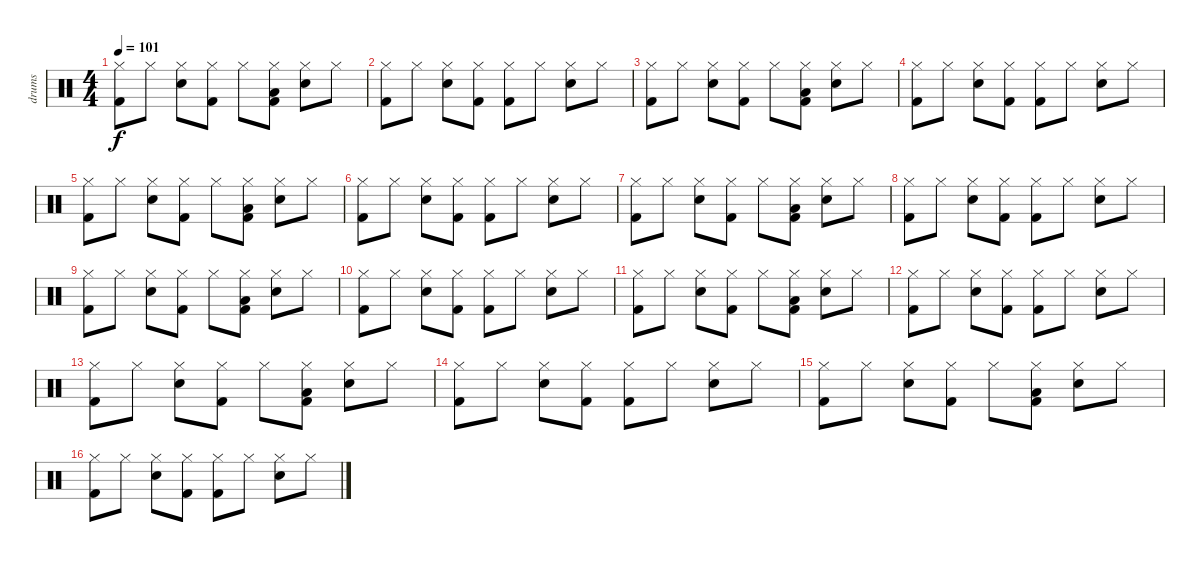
\track ("drums" "drums") {instrument percussion}
\staff {score}
\articulation defaults
\ts (4 4)
\tempo 101
\clef neutral
\ks c
("Hi-Hat (closed)" "Kick (hit) 2").8{dy f} "Hi-Hat (closed)".8 ("Hi-Hat (closed)" "Snare (hit) 2").8 ("Hi-Hat (closed)" "Kick (hit) 2").8 "Hi-Hat (closed)".8 ("Hi-Hat (closed)" "Low Floor Tom (hit)" "Kick (hit) 2").8 ("Hi-Hat (closed)" "Snare (hit) 2").8 "Hi-Hat (closed)".8 |
("Hi-Hat (closed)" "Kick (hit) 2").8 "Hi-Hat (closed)".8 ("Hi-Hat (closed)" "Snare (hit) 2").8 ("Hi-Hat (closed)" "Kick (hit) 2").8 ("Hi-Hat (closed)" "Kick (hit) 2").8 "Hi-Hat (closed)".8 ("Hi-Hat (closed)" "Snare (hit) 2").8 "Hi-Hat (closed)".8 |
("Hi-Hat (closed)" "Kick (hit) 2").8 "Hi-Hat (closed)".8 ("Hi-Hat (closed)" "Snare (hit) 2").8 ("Hi-Hat (closed)" "Kick (hit) 2").8 "Hi-Hat (closed)".8 ("Hi-Hat (closed)" "Low Floor Tom (hit)" "Kick (hit) 2").8 ("Hi-Hat (closed)" "Snare (hit) 2").8 "Hi-Hat (closed)".8 |
("Hi-Hat (closed)" "Kick (hit) 2").8 "Hi-Hat (closed)".8 ("Hi-Hat (closed)" "Snare (hit) 2").8 ("Hi-Hat (closed)" "Kick (hit) 2").8 ("Hi-Hat (closed)" "Kick (hit) 2").8 "Hi-Hat (closed)".8 ("Hi-Hat (closed)" "Snare (hit) 2").8 "Hi-Hat (closed)".8 |
("Hi-Hat (closed)" "Kick (hit) 2").8 "Hi-Hat (closed)".8 ("Hi-Hat (closed)" "Snare (hit) 2").8 ("Hi-Hat (closed)" "Kick (hit) 2").8 "Hi-Hat (closed)".8 ("Hi-Hat (closed)" "Low Floor Tom (hit)" "Kick (hit) 2").8 ("Hi-Hat (closed)" "Snare (hit) 2").8 "Hi-Hat (closed)".8 |
("Hi-Hat (closed)" "Kick (hit) 2").8 "Hi-Hat (closed)".8 ("Hi-Hat (closed)" "Snare (hit) 2").8 ("Hi-Hat (closed)" "Kick (hit) 2").8 ("Hi-Hat (closed)" "Kick (hit) 2").8 "Hi-Hat (closed)".8 ("Hi-Hat (closed)" "Snare (hit) 2").8 "Hi-Hat (closed)".8 |
("Hi-Hat (closed)" "Kick (hit) 2").8 "Hi-Hat (closed)".8 ("Hi-Hat (closed)" "Snare (hit) 2").8 ("Hi-Hat (closed)" "Kick (hit) 2").8 "Hi-Hat (closed)".8 ("Hi-Hat (closed)" "Low Floor Tom (hit)" "Kick (hit) 2").8 ("Hi-Hat (closed)" "Snare (hit) 2").8 "Hi-Hat (closed)".8 |
("Hi-Hat (closed)" "Kick (hit) 2").8 "Hi-Hat (closed)".8 ("Hi-Hat (closed)" "Snare (hit) 2").8 ("Hi-Hat (closed)" "Kick (hit) 2").8 ("Hi-Hat (closed)" "Kick (hit) 2").8 "Hi-Hat (closed)".8 ("Hi-Hat (closed)" "Snare (hit) 2").8 "Hi-Hat (closed)".8 |
("Hi-Hat (closed)" "Kick (hit) 2").8 "Hi-Hat (closed)".8 ("Hi-Hat (closed)" "Snare (hit) 2").8 ("Hi-Hat (closed)" "Kick (hit) 2").8 "Hi-Hat (closed)".8 ("Hi-Hat (closed)" "Low Floor Tom (hit)" "Kick (hit) 2").8 ("Hi-Hat (closed)" "Snare (hit) 2").8 "Hi-Hat (closed)".8 |
("Hi-Hat (closed)" "Kick (hit) 2").8 "Hi-Hat (closed)".8 ("Hi-Hat (closed)" "Snare (hit) 2").8 ("Hi-Hat (closed)" "Kick (hit) 2").8 ("Hi-Hat (closed)" "Kick (hit) 2").8 "Hi-Hat (closed)".8 ("Hi-Hat (closed)" "Snare (hit) 2").8 "Hi-Hat (closed)".8 |
("Hi-Hat (closed)" "Kick (hit) 2").8 "Hi-Hat (closed)".8 ("Hi-Hat (closed)" "Snare (hit) 2").8 ("Hi-Hat (closed)" "Kick (hit) 2").8 "Hi-Hat (closed)".8 ("Hi-Hat (closed)" "Low Floor Tom (hit)" "Kick (hit) 2").8 ("Hi-Hat (closed)" "Snare (hit) 2").8 "Hi-Hat (closed)".8 |
("Hi-Hat (closed)" "Kick (hit) 2").8 "Hi-Hat (closed)".8 ("Hi-Hat (closed)" "Snare (hit) 2").8 ("Hi-Hat (closed)" "Kick (hit) 2").8 ("Hi-Hat (closed)" "Kick (hit) 2").8 "Hi-Hat (closed)".8 ("Hi-Hat (closed)" "Snare (hit) 2").8 "Hi-Hat (closed)".8 |
("Hi-Hat (closed)" "Kick (hit) 2").8 "Hi-Hat (closed)".8 ("Hi-Hat (closed)" "Snare (hit) 2").8 ("Hi-Hat (closed)" "Kick (hit) 2").8 "Hi-Hat (closed)".8 ("Hi-Hat (closed)" "Low Floor Tom (hit)" "Kick (hit) 2").8 ("Hi-Hat (closed)" "Snare (hit) 2").8 "Hi-Hat (closed)".8 |
("Hi-Hat (closed)" "Kick (hit) 2").8 "Hi-Hat (closed)".8 ("Hi-Hat (closed)" "Snare (hit) 2").8 ("Hi-Hat (closed)" "Kick (hit) 2").8 ("Hi-Hat (closed)" "Kick (hit) 2").8 "Hi-Hat (closed)".8 ("Hi-Hat (closed)" "Snare (hit) 2").8 "Hi-Hat (closed)".8 |
("Hi-Hat (closed)" "Kick (hit) 2").8 "Hi-Hat (closed)".8 ("Hi-Hat (closed)" "Snare (hit) 2").8 ("Hi-Hat (closed)" "Kick (hit) 2").8 "Hi-Hat (closed)".8 ("Hi-Hat (closed)" "Low Floor Tom (hit)" "Kick (hit) 2").8 ("Hi-Hat (closed)" "Snare (hit) 2").8 "Hi-Hat (closed)".8 |
("Hi-Hat (closed)" "Kick (hit) 2").8 "Hi-Hat (closed)".8 ("Hi-Hat (closed)" "Snare (hit) 2").8 ("Hi-Hat (closed)" "Kick (hit) 2").8 ("Hi-Hat (closed)" "Kick (hit) 2").8 "Hi-Hat (closed)".8 ("Hi-Hat (closed)" "Snare (hit) 2").8 "Hi-Hat (closed)".8
